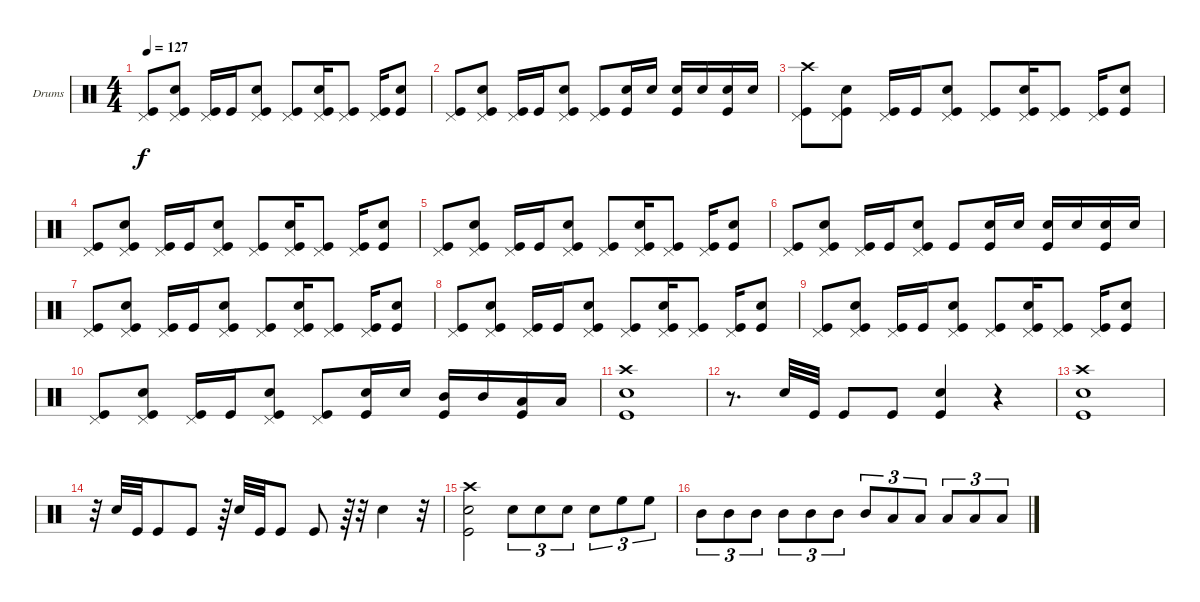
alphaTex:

\bracketExtendMode groupsimilarinstruments
\firstSystemTrackNameOrientation horizontal
\otherSystemsTrackNameOrientation horizontal
\track ("Drumkit" "Drums") {instrument percussion}
\staff {score}
\articulation defaults
\ts (4 4)
\tempo 127
\clef neutral
\ks c
("Pedal Hi-Hat (hit)" "Kick (hit)").8{dy f} ("Pedal Hi-Hat (hit)" "Snare (hit) 2" "Kick (hit)").8 ("Pedal Hi-Hat (hit)" "Kick (hit)").16 "Kick (hit)".16 ("Pedal Hi-Hat (hit)" "Snare (hit) 2" "Kick (hit)").8 ("Pedal Hi-Hat (hit)" "Kick (hit)").8 ("Pedal Hi-Hat (hit)" "Snare (hit) 2" "Kick (hit)").16 ("Pedal Hi-Hat (hit)" "Kick (hit)").8 ("Pedal Hi-Hat (hit)" "Kick (hit)").16 ("Snare (hit) 2" "Kick (hit)").8 |
("Pedal Hi-Hat (hit)" "Kick (hit)").8 ("Pedal Hi-Hat (hit)" "Snare (hit) 2" "Kick (hit)").8 ("Pedal Hi-Hat (hit)" "Kick (hit)").16 "Kick (hit)".16 ("Pedal Hi-Hat (hit)" "Snare (hit) 2" "Kick (hit)").8 ("Pedal Hi-Hat (hit)" "Kick (hit)").8 ("Snare (hit) 2" "Kick (hit)").16 "Snare (hit) 2".16 ("Snare (hit) 2" "Kick (hit)").16 "Snare (hit) 2".16 ("Snare (hit) 2" "Kick (hit)").16 "Snare (hit) 2".16 |
("Pedal Hi-Hat (hit)" "Crash high (hit)" "Kick (hit)").8 ("Pedal Hi-Hat (hit)" "Snare (hit) 2" "Kick (hit)").8 ("Pedal Hi-Hat (hit)" "Kick (hit)").16 "Kick (hit)".16 ("Pedal Hi-Hat (hit)" "Snare (hit) 2" "Kick (hit)").8 ("Pedal Hi-Hat (hit)" "Kick (hit)").8 ("Pedal Hi-Hat (hit)" "Snare (hit) 2" "Kick (hit)").16 ("Pedal Hi-Hat (hit)" "Kick (hit)").8 ("Pedal Hi-Hat (hit)" "Kick (hit)").16 ("Snare (hit) 2" "Kick (hit)").8 |
("Pedal Hi-Hat (hit)" "Kick (hit)").8 ("Pedal Hi-Hat (hit)" "Snare (hit) 2" "Kick (hit)").8 ("Pedal Hi-Hat (hit)" "Kick (hit)").16 "Kick (hit)".16 ("Pedal Hi-Hat (hit)" "Snare (hit) 2" "Kick (hit)").8 ("Pedal Hi-Hat (hit)" "Kick (hit)").8 ("Pedal Hi-Hat (hit)" "Snare (hit) 2" "Kick (hit)").16 ("Pedal Hi-Hat (hit)" "Kick (hit)").8 ("Pedal Hi-Hat (hit)" "Kick (hit)").16 ("Snare (hit) 2" "Kick (hit)").8 |
("Pedal Hi-Hat (hit)" "Kick (hit)").8 ("Pedal Hi-Hat (hit)" "Snare (hit) 2" "Kick (hit)").8 ("Pedal Hi-Hat (hit)" "Kick (hit)").16 "Kick (hit)".16 ("Pedal Hi-Hat (hit)" "Snare (hit) 2" "Kick (hit)").8 ("Pedal Hi-Hat (hit)" "Kick (hit)").8 ("Pedal Hi-Hat (hit)" "Snare (hit) 2" "Kick (hit)").16 ("Pedal Hi-Hat (hit)" "Kick (hit)").8 ("Pedal Hi-Hat (hit)" "Kick (hit)").16 ("Snare (hit) 2" "Kick (hit)").8 |
("Pedal Hi-Hat (hit)" "Kick (hit)").8 ("Pedal Hi-Hat (hit)" "Snare (hit) 2" "Kick (hit)").8 ("Pedal Hi-Hat (hit)" "Kick (hit)").16 "Kick (hit)".16 ("Pedal Hi-Hat (hit)" "Snare (hit) 2" "Kick (hit)").8 "Kick (hit)".8 ("Snare (hit) 2" "Kick (hit)").16 "Snare (hit) 2".16 ("Snare (hit) 2" "Kick (hit)").16 "Snare (hit) 2".16 ("Snare (hit) 2" "Kick (hit)").16 "Snare (hit) 2".16 |
("Pedal Hi-Hat (hit)" "Kick (hit)").8 ("Pedal Hi-Hat (hit)" "Snare (hit) 2" "Kick (hit)").8 ("Pedal Hi-Hat (hit)" "Kick (hit)").16 "Kick (hit)".16 ("Pedal Hi-Hat (hit)" "Snare (hit) 2" "Kick (hit)").8 ("Pedal Hi-Hat (hit)" "Kick (hit)").8 ("Pedal Hi-Hat (hit)" "Snare (hit) 2" "Kick (hit)").16 ("Pedal Hi-Hat (hit)" "Kick (hit)").8 ("Pedal Hi-Hat (hit)" "Kick (hit)").16 ("Snare (hit) 2" "Kick (hit)").8 |
("Pedal Hi-Hat (hit)" "Kick (hit)").8 ("Pedal Hi-Hat (hit)" "Snare (hit) 2" "Kick (hit)").8 ("Pedal Hi-Hat (hit)" "Kick (hit)").16 "Kick (hit)".16 ("Pedal Hi-Hat (hit)" "Snare (hit) 2" "Kick (hit)").8 ("Pedal Hi-Hat (hit)" "Kick (hit)").8 ("Pedal Hi-Hat (hit)" "Snare (hit) 2" "Kick (hit)").16 ("Pedal Hi-Hat (hit)" "Kick (hit)").8 ("Pedal Hi-Hat (hit)" "Kick (hit)").16 ("Snare (hit) 2" "Kick (hit)").8 |
("Pedal Hi-Hat (hit)" "Kick (hit)").8 ("Pedal Hi-Hat (hit)" "Snare (hit) 2" "Kick (hit)").8 ("Pedal Hi-Hat (hit)" "Kick (hit)").16 "Kick (hit)".16 ("Pedal Hi-Hat (hit)" "Snare (hit) 2" "Kick (hit)").8 ("Pedal Hi-Hat (hit)" "Kick (hit)").8 ("Pedal Hi-Hat (hit)" "Snare (hit) 2" "Kick (hit)").16 ("Pedal Hi-Hat (hit)" "Kick (hit)").8 ("Pedal Hi-Hat (hit)" "Kick (hit)").16 ("Snare (hit) 2" "Kick (hit)").8 |
("Pedal Hi-Hat (hit)" "Kick (hit)").8 ("Pedal Hi-Hat (hit)" "Snare (hit) 2" "Kick (hit)").8 ("Pedal Hi-Hat (hit)" "Kick (hit)").16 "Kick (hit)".16 ("Pedal Hi-Hat (hit)" "Snare (hit) 2" "Kick (hit)").8 ("Pedal Hi-Hat (hit)" "Kick (hit)").8 ("Snare (hit) 2" "Kick (hit)").16 "Snare (hit) 2".16 ("Kick (hit)" "Mid Tom (hit)").16 "Mid Tom (hit)".16 ("Kick (hit)" "Low Tom (hit)").16 "Low Tom (hit)".16 |
("Crash high (hit)" "Snare (hit) 2" "Kick (hit)").1 |
r.8{d} "Snare (hit) 2".32 "Kick (hit)".32 "Kick (hit)".8 "Kick (hit)".8 ("Snare (hit) 2" "Kick (hit)").4 r.4 |
("Crash high (hit)" "Snare (hit) 2" "Kick (hit)").1 |
r.32 "Snare (hit) 2".32 "Kick (hit)".32 "Kick (hit)".8 "Kick (hit)".8 r.64 "Snare (hit) 2".32 "Kick (hit)".32 "Kick (hit)".8 "Kick (hit)".8 r.64 r.32 "Snare (hit) 2".4 r.32 |
("Crash high (hit)" "Snare (hit) 2" "Kick (hit)").2 "Snare (hit) 2".8{tu (3 2)} "Snare (hit) 2".8{tu (3 2)} "Snare (hit) 2".8{tu (3 2)} "Snare (hit) 2".8{tu (3 2)} "High Floor Tom (hit)".8{tu (3 2)} "High Floor Tom (hit)".8{tu (3 2)} |
"Mid Tom (hit)".8{tu (3 2)} "Mid Tom (hit)".8{tu (3 2)} "Mid Tom (hit)".8{tu (3 2)} "Mid Tom (hit)".8{tu (3 2)} "Mid Tom (hit)".8{tu (3 2)} "Mid Tom (hit)".8{tu (3 2)} "Mid Tom (hit)".8{tu (3 2)} "Low Tom (hit)".8{tu (3 2)} "Low Tom (hit)".8{tu (3 2)} "Low Tom (hit)".8{tu (3 2)} "Low Tom (hit)".8{tu (3 2)} "Low Tom (hit)".8{tu (3 2)}
